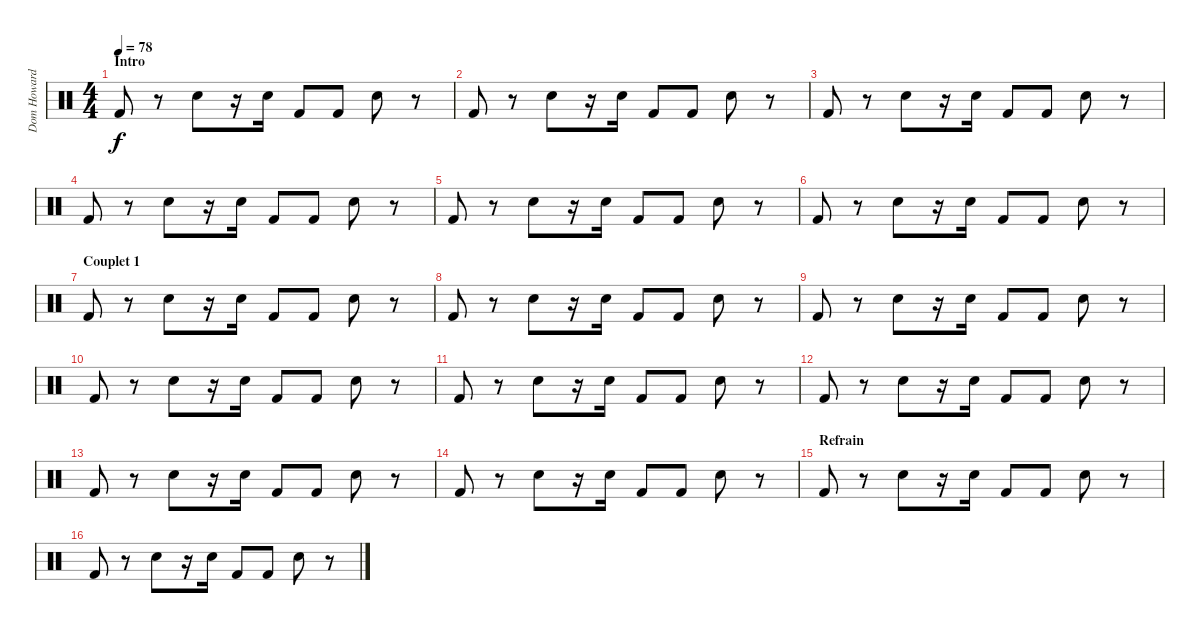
\track ("Dom Howard" "Dom Howard") {instrument percussion}
\staff {score}
\articulation defaults
\ts (4 4)
\section ("" "Intro")
\tempo 78
\clef neutral
\ks c "Kick (hit) 2".8{dy f}
r.8 "Electric Snare (hit)".8 r.16 "Electric Snare (hit)".16 "Kick (hit) 2".8 "Kick (hit) 2".8 "Electric Snare (hit)".8 r.8 |
"Kick (hit) 2".8 r.8 "Electric Snare (hit)".8 r.16 "Electric Snare (hit)".16 "Kick (hit) 2".8 "Kick (hit) 2".8 "Electric Snare (hit)".8 r.8 |
"Kick (hit) 2".8 r.8 "Electric Snare (hit)".8 r.16 "Electric Snare (hit)".16 "Kick (hit) 2".8 "Kick (hit) 2".8 "Electric Snare (hit)".8 r.8 |
"Kick (hit) 2".8 r.8 "Electric Snare (hit)".8 r.16 "Electric Snare (hit)".16 "Kick (hit) 2".8 "Kick (hit) 2".8 "Electric Snare (hit)".8 r.8 |
"Kick (hit) 2".8 r.8 "Electric Snare (hit)".8 r.16 "Electric Snare (hit)".16 "Kick (hit) 2".8 "Kick (hit) 2".8 "Electric Snare (hit)".8 r.8 |
"Kick (hit) 2".8 r.8 "Electric Snare (hit)".8 r.16 "Electric Snare (hit)".16 "Kick (hit) 2".8 "Kick (hit) 2".8 "Electric Snare (hit)".8 r.8 |
\section ("" "Couplet 1")
"Kick (hit) 2".8 r.8 "Electric Snare (hit)".8 r.16 "Electric Snare (hit)".16 "Kick (hit) 2".8 "Kick (hit) 2".8 "Electric Snare (hit)".8 r.8 |
"Kick (hit) 2".8 r.8 "Electric Snare (hit)".8 r.16 "Electric Snare (hit)".16 "Kick (hit) 2".8 "Kick (hit) 2".8 "Electric Snare (hit)".8 r.8 |
"Kick (hit) 2".8 r.8 "Electric Snare (hit)".8 r.16 "Electric Snare (hit)".16 "Kick (hit) 2".8 "Kick (hit) 2".8 "Electric Snare (hit)".8 r.8 |
"Kick (hit) 2".8 r.8 "Electric Snare (hit)".8 r.16 "Electric Snare (hit)".16 "Kick (hit) 2".8 "Kick (hit) 2".8 "Electric Snare (hit)".8 r.8 |
"Kick (hit) 2".8 r.8 "Electric Snare (hit)".8 r.16 "Electric Snare (hit)".16 "Kick (hit) 2".8 "Kick (hit) 2".8 "Electric Snare (hit)".8 r.8 |
"Kick (hit) 2".8 r.8 "Electric Snare (hit)".8 r.16 "Electric Snare (hit)".16 "Kick (hit) 2".8 "Kick (hit) 2".8 "Electric Snare (hit)".8 r.8 |
"Kick (hit) 2".8 r.8 "Electric Snare (hit)".8 r.16 "Electric Snare (hit)".16 "Kick (hit) 2".8 "Kick (hit) 2".8 "Electric Snare (hit)".8 r.8 |
"Kick (hit) 2".8 r.8 "Electric Snare (hit)".8 r.16 "Electric Snare (hit)".16 "Kick (hit) 2".8 "Kick (hit) 2".8 "Electric Snare (hit)".8 r.8 |
\section ("" "Refrain")
"Kick (hit) 2".8 r.8 "Electric Snare (hit)".8 r.16 "Electric Snare (hit)".16 "Kick (hit) 2".8 "Kick (hit) 2".8 "Electric Snare (hit)".8 r.8 |
"Kick (hit) 2".8 r.8 "Electric Snare (hit)".8 r.16 "Electric Snare (hit)".16 "Kick (hit) 2".8 "Kick (hit) 2".8 "Electric Snare (hit)".8 r.8
